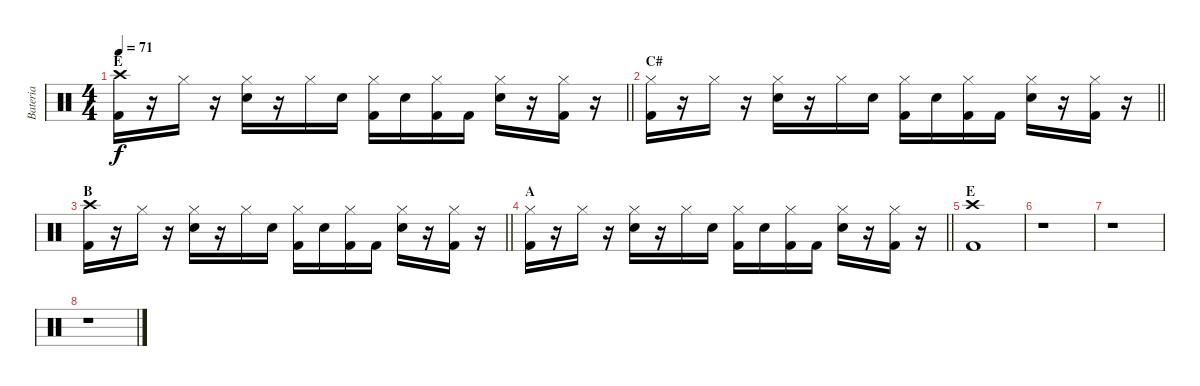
\track ("Bateria" "Bateria") {instrument percussion}
\staff {score}
\articulation defaults
\ts (4 4)
\section ("" "E")
\tempo 71
\clef neutral
\barLineRight lightlight
\ks c
("Crash high (hit)" "Kick (hit) 2").16{dy f} r.16 "Hi-Hat (closed)".16 r.16 ("Hi-Hat (closed)" "Electric Snare (hit)").16 r.16 "Hi-Hat (closed)".16 "Electric Snare (hit)".16 ("Hi-Hat (closed)" "Kick (hit) 2").16 "Electric Snare (hit)".16 ("Hi-Hat (closed)" "Kick (hit) 2").16 "Kick (hit) 2".16 ("Hi-Hat (closed)" "Electric Snare (hit)").16 r.16 ("Hi-Hat (closed)" "Kick (hit) 2").16 r.16 |
\section ("" "C#")
\barLineRight lightlight
("Hi-Hat (closed)" "Kick (hit) 2").16 r.16 "Hi-Hat (closed)".16 r.16 ("Hi-Hat (closed)" "Electric Snare (hit)").16 r.16 "Hi-Hat (closed)".16 "Electric Snare (hit)".16 ("Hi-Hat (closed)" "Kick (hit) 2").16 "Electric Snare (hit)".16 ("Hi-Hat (closed)" "Kick (hit) 2").16 "Kick (hit) 2".16 ("Hi-Hat (closed)" "Electric Snare (hit)").16 r.16 ("Hi-Hat (closed)" "Kick (hit) 2").16 r.16 |
\section ("" "B")
\barLineRight lightlight
("Crash high (hit)" "Kick (hit) 2").16 r.16 "Hi-Hat (closed)".16 r.16 ("Hi-Hat (closed)" "Electric Snare (hit)").16 r.16 "Hi-Hat (closed)".16 "Electric Snare (hit)".16 ("Hi-Hat (closed)" "Kick (hit) 2").16 "Electric Snare (hit)".16 ("Hi-Hat (closed)" "Kick (hit) 2").16 "Kick (hit) 2".16 ("Hi-Hat (closed)" "Electric Snare (hit)").16 r.16 ("Hi-Hat (closed)" "Kick (hit) 2").16 r.16 |
\section ("" "A")
\barLineRight lightlight
("Hi-Hat (closed)" "Kick (hit) 2").16 r.16 "Hi-Hat (closed)".16 r.16 ("Hi-Hat (closed)" "Electric Snare (hit)").16 r.16 "Hi-Hat (closed)".16 "Electric Snare (hit)".16 ("Hi-Hat (closed)" "Kick (hit) 2").16 "Electric Snare (hit)".16 ("Hi-Hat (closed)" "Kick (hit) 2").16 "Kick (hit) 2".16 ("Hi-Hat (closed)" "Electric Snare (hit)").16 r.16 ("Hi-Hat (closed)" "Kick (hit) 2").16 r.16 |
\section ("" "E")
("Crash high (hit)" "Kick (hit) 2").1 |
r.1 |
r.1 |
r.1
